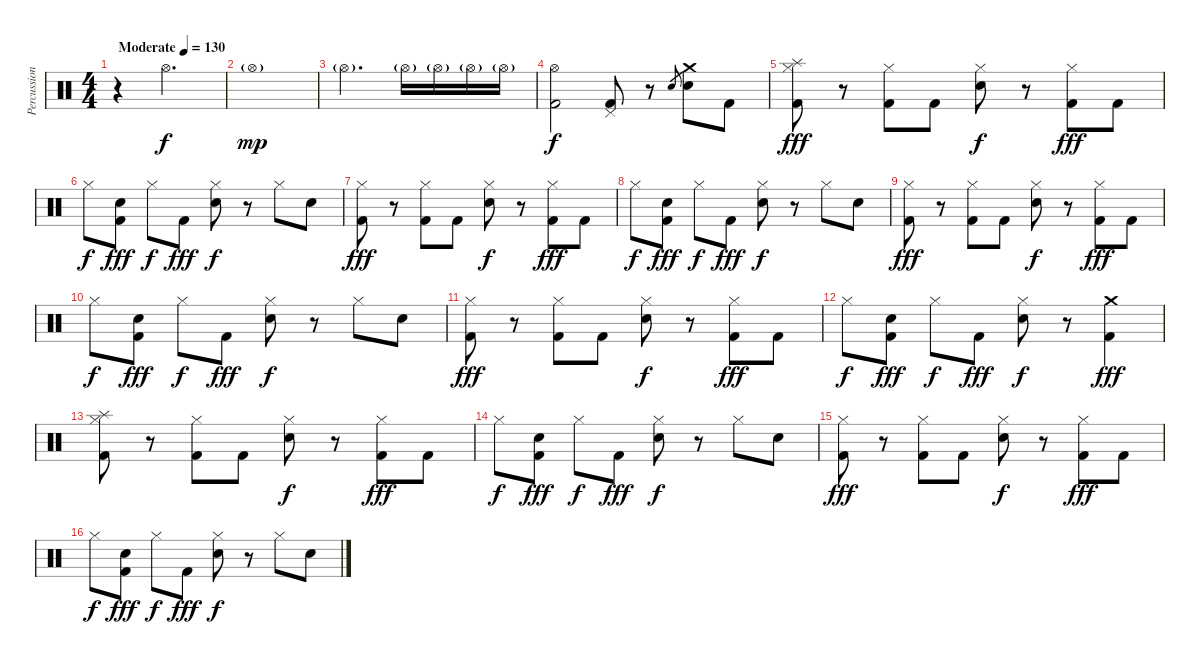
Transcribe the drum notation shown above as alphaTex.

\track ("Percussion" "Percussion") {instrument percussion}
\staff {score}
\articulation defaults
\ts (4 4)
\tempo (130 "Moderate")
\clef neutral
\ks c
r.4{dy f volume 0} "Hi-Hat (open)".2{d volume 13} |
"Hi-Hat (open)"{g}.1{dy mp} |
"Hi-Hat (open)"{g}.2{d} "Hi-Hat (open)"{g}.16 "Hi-Hat (open)"{g}.16 "Hi-Hat (open)"{g}.16 "Hi-Hat (open)"{g}.16 |
("Hi-Hat (open)" "Kick (hit) 2").2{dy f} ("Pedal Hi-Hat (hit)" "Kick (hit) 2").8 r.8 "Electric Snare (hit)".8{gr} ("Crash medium (hit)" "Electric Snare (hit)").8 "Kick (hit) 2".8 |
("Hi-Hat (closed)" "Splash (hit)" "Kick (hit) 2").8{dy fff} r.8 ("Hi-Hat (closed)" "Kick (hit) 2").8 "Kick (hit) 2".8 ("Hi-Hat (closed)" "Electric Snare (hit)").8{dy f} r.8 ("Hi-Hat (closed)" "Kick (hit) 2").8{dy fff} "Kick (hit) 2".8 |
"Hi-Hat (closed)".8{dy f} ("Electric Snare (hit)" "Kick (hit) 2").8{dy fff} "Hi-Hat (closed)".8{dy f} "Kick (hit) 2".8{dy fff} ("Hi-Hat (closed)" "Electric Snare (hit)").8{dy f} r.8 "Hi-Hat (closed)".8 "Electric Snare (hit)".8 |
("Hi-Hat (closed)" "Kick (hit) 2").8{dy fff} r.8 ("Hi-Hat (closed)" "Kick (hit) 2").8 "Kick (hit) 2".8 ("Hi-Hat (closed)" "Electric Snare (hit)").8{dy f} r.8 ("Hi-Hat (closed)" "Kick (hit) 2").8{dy fff} "Kick (hit) 2".8 |
"Hi-Hat (closed)".8{dy f} ("Electric Snare (hit)" "Kick (hit) 2").8{dy fff} "Hi-Hat (closed)".8{dy f} "Kick (hit) 2".8{dy fff} ("Hi-Hat (closed)" "Electric Snare (hit)").8{dy f} r.8 "Hi-Hat (closed)".8 "Electric Snare (hit)".8 |
("Hi-Hat (closed)" "Kick (hit) 2").8{dy fff} r.8 ("Hi-Hat (closed)" "Kick (hit) 2").8 "Kick (hit) 2".8 ("Hi-Hat (closed)" "Electric Snare (hit)").8{dy f} r.8 ("Hi-Hat (closed)" "Kick (hit) 2").8{dy fff} "Kick (hit) 2".8 |
"Hi-Hat (closed)".8{dy f} ("Electric Snare (hit)" "Kick (hit) 2").8{dy fff} "Hi-Hat (closed)".8{dy f} "Kick (hit) 2".8{dy fff} ("Hi-Hat (closed)" "Electric Snare (hit)").8{dy f} r.8 "Hi-Hat (closed)".8 "Electric Snare (hit)".8 |
("Hi-Hat (closed)" "Kick (hit) 2").8{dy fff} r.8 ("Hi-Hat (closed)" "Kick (hit) 2").8 "Kick (hit) 2".8 ("Hi-Hat (closed)" "Electric Snare (hit)").8{dy f} r.8 ("Hi-Hat (closed)" "Kick (hit) 2").8{dy fff} "Kick (hit) 2".8 |
"Hi-Hat (closed)".8{dy f} ("Electric Snare (hit)" "Kick (hit) 2").8{dy fff} "Hi-Hat (closed)".8{dy f} "Kick (hit) 2".8{dy fff} ("Hi-Hat (closed)" "Electric Snare (hit)").8{dy f} r.8 ("Crash medium (hit)" "Kick (hit) 2").4{dy fff} |
("Hi-Hat (closed)" "Splash (hit)" "Kick (hit) 2").8 r.8 ("Hi-Hat (closed)" "Kick (hit) 2").8 "Kick (hit) 2".8 ("Hi-Hat (closed)" "Electric Snare (hit)").8{dy f} r.8 ("Hi-Hat (closed)" "Kick (hit) 2").8{dy fff} "Kick (hit) 2".8 |
"Hi-Hat (closed)".8{dy f} ("Electric Snare (hit)" "Kick (hit) 2").8{dy fff} "Hi-Hat (closed)".8{dy f} "Kick (hit) 2".8{dy fff} ("Hi-Hat (closed)" "Electric Snare (hit)").8{dy f} r.8 "Hi-Hat (closed)".8 "Electric Snare (hit)".8 |
("Hi-Hat (closed)" "Kick (hit) 2").8{dy fff} r.8 ("Hi-Hat (closed)" "Kick (hit) 2").8 "Kick (hit) 2".8 ("Hi-Hat (closed)" "Electric Snare (hit)").8{dy f} r.8 ("Hi-Hat (closed)" "Kick (hit) 2").8{dy fff} "Kick (hit) 2".8 |
"Hi-Hat (closed)".8{dy f} ("Electric Snare (hit)" "Kick (hit) 2").8{dy fff} "Hi-Hat (closed)".8{dy f} "Kick (hit) 2".8{dy fff} ("Hi-Hat (closed)" "Electric Snare (hit)").8{dy f} r.8 "Hi-Hat (closed)".8 "Electric Snare (hit)".8
